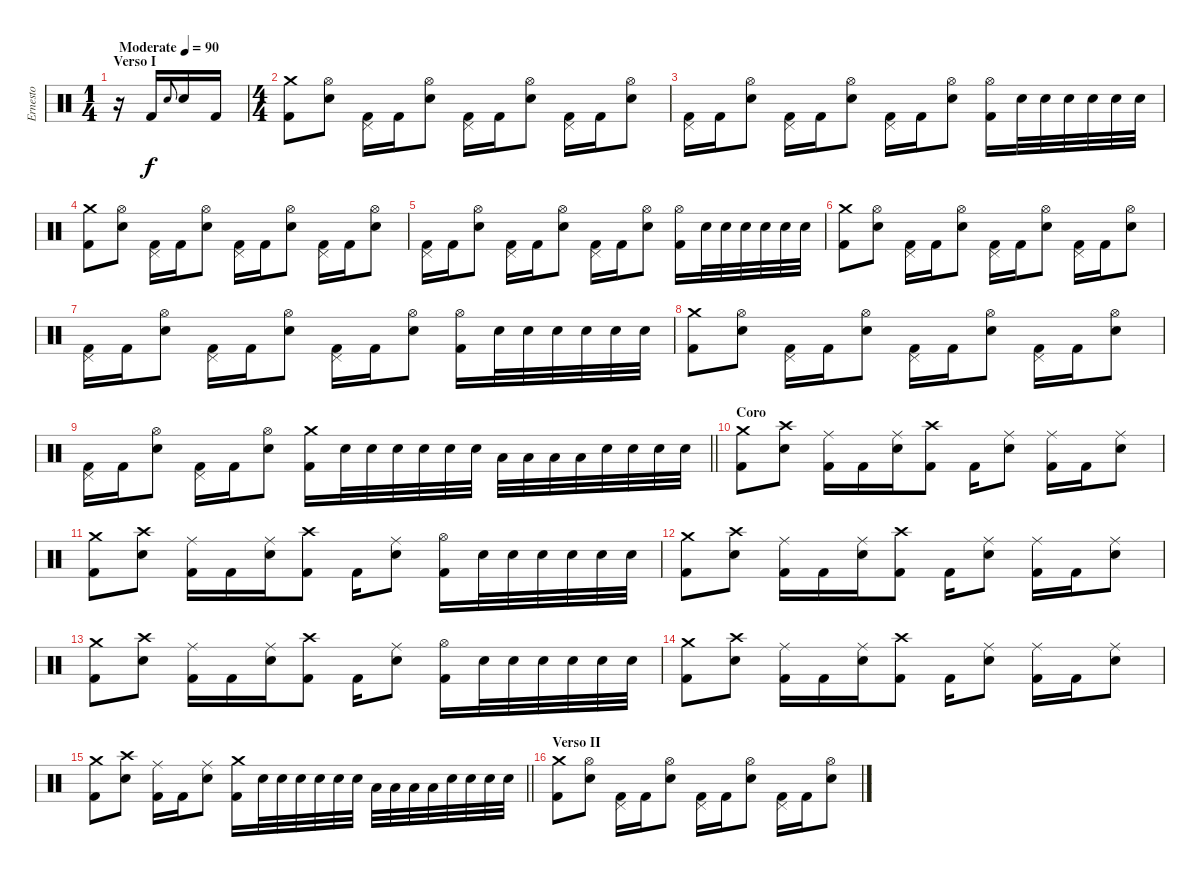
\track ("Ernesto" "Ernesto") {instrument percussion}
\staff
\articulation defaults
\ts (1 4)
\section ("" "Verso I")
\tempo (90 "Moderate")
\clef neutral
\ks c
r.16{dy f} "Kick (hit) 2".16 "Electric Snare (hit)".8{gr onbeat} "Electric Snare (hit)".16 "Kick (hit) 2".16 |
\ts (4 4)
("Crash medium (hit)" "Kick (hit) 2").8 ("Hi-Hat (open)" "Electric Snare (hit)").8 ("Pedal Hi-Hat (hit)" "Kick (hit) 2").16 "Kick (hit) 2".16 ("Hi-Hat (open)" "Electric Snare (hit)").8 ("Pedal Hi-Hat (hit)" "Kick (hit) 2").16 "Kick (hit) 2".16 ("Hi-Hat (open)" "Electric Snare (hit)").8 ("Pedal Hi-Hat (hit)" "Kick (hit) 2").16 "Kick (hit) 2".16 ("Hi-Hat (open)" "Electric Snare (hit)").8 |
("Pedal Hi-Hat (hit)" "Kick (hit) 2").16 "Kick (hit) 2".16 ("Hi-Hat (open)" "Electric Snare (hit)").8 ("Pedal Hi-Hat (hit)" "Kick (hit) 2").16 "Kick (hit) 2".16 ("Hi-Hat (open)" "Electric Snare (hit)").8 ("Pedal Hi-Hat (hit)" "Kick (hit) 2").16 "Kick (hit) 2".16 ("Hi-Hat (open)" "Electric Snare (hit)").8 ("Hi-Hat (open)" "Kick (hit) 2").16 "Electric Snare (hit)".32 "Electric Snare (hit)".32 "Electric Snare (hit)".32 "Electric Snare (hit)".32 "Electric Snare (hit)".32 "Electric Snare (hit)".32 |
("Crash medium (hit)" "Kick (hit) 2").8 ("Hi-Hat (open)" "Electric Snare (hit)").8 ("Pedal Hi-Hat (hit)" "Kick (hit) 2").16 "Kick (hit) 2".16 ("Hi-Hat (open)" "Electric Snare (hit)").8 ("Pedal Hi-Hat (hit)" "Kick (hit) 2").16 "Kick (hit) 2".16 ("Hi-Hat (open)" "Electric Snare (hit)").8 ("Pedal Hi-Hat (hit)" "Kick (hit) 2").16 "Kick (hit) 2".16 ("Hi-Hat (open)" "Electric Snare (hit)").8 |
("Pedal Hi-Hat (hit)" "Kick (hit) 2").16 "Kick (hit) 2".16 ("Hi-Hat (open)" "Electric Snare (hit)").8 ("Pedal Hi-Hat (hit)" "Kick (hit) 2").16 "Kick (hit) 2".16 ("Hi-Hat (open)" "Electric Snare (hit)").8 ("Pedal Hi-Hat (hit)" "Kick (hit) 2").16 "Kick (hit) 2".16 ("Hi-Hat (open)" "Electric Snare (hit)").8 ("Hi-Hat (open)" "Kick (hit) 2").16 "Electric Snare (hit)".32 "Electric Snare (hit)".32 "Electric Snare (hit)".32 "Electric Snare (hit)".32 "Electric Snare (hit)".32 "Electric Snare (hit)".32 |
("Crash medium (hit)" "Kick (hit) 2").8 ("Hi-Hat (open)" "Electric Snare (hit)").8 ("Pedal Hi-Hat (hit)" "Kick (hit) 2").16 "Kick (hit) 2".16 ("Hi-Hat (open)" "Electric Snare (hit)").8 ("Pedal Hi-Hat (hit)" "Kick (hit) 2").16 "Kick (hit) 2".16 ("Hi-Hat (open)" "Electric Snare (hit)").8 ("Pedal Hi-Hat (hit)" "Kick (hit) 2").16 "Kick (hit) 2".16 ("Hi-Hat (open)" "Electric Snare (hit)").8 |
("Pedal Hi-Hat (hit)" "Kick (hit) 2").16 "Kick (hit) 2".16 ("Hi-Hat (open)" "Electric Snare (hit)").8 ("Pedal Hi-Hat (hit)" "Kick (hit) 2").16 "Kick (hit) 2".16 ("Hi-Hat (open)" "Electric Snare (hit)").8 ("Pedal Hi-Hat (hit)" "Kick (hit) 2").16 "Kick (hit) 2".16 ("Hi-Hat (open)" "Electric Snare (hit)").8 ("Hi-Hat (open)" "Kick (hit) 2").16 "Electric Snare (hit)".32 "Electric Snare (hit)".32 "Electric Snare (hit)".32 "Electric Snare (hit)".32 "Electric Snare (hit)".32 "Electric Snare (hit)".32 |
("Crash medium (hit)" "Kick (hit) 2").8 ("Hi-Hat (open)" "Electric Snare (hit)").8 ("Pedal Hi-Hat (hit)" "Kick (hit) 2").16 "Kick (hit) 2".16 ("Hi-Hat (open)" "Electric Snare (hit)").8 ("Pedal Hi-Hat (hit)" "Kick (hit) 2").16 "Kick (hit) 2".16 ("Hi-Hat (open)" "Electric Snare (hit)").8 ("Pedal Hi-Hat (hit)" "Kick (hit) 2").16 "Kick (hit) 2".16 ("Hi-Hat (open)" "Electric Snare (hit)").8 |
\barLineRight lightlight
("Pedal Hi-Hat (hit)" "Kick (hit) 2").16 "Kick (hit) 2".16 ("Hi-Hat (open)" "Electric Snare (hit)").8 ("Pedal Hi-Hat (hit)" "Kick (hit) 2").16 "Kick (hit) 2".16 ("Hi-Hat (open)" "Electric Snare (hit)").8 ("Crash medium (hit)" "Kick (hit) 2").16 "Electric Snare (hit)".32 "Electric Snare (hit)".32 "Electric Snare (hit)".32 "Electric Snare (hit)".32 "Electric Snare (hit)".32 "Electric Snare (hit)".32 "Low Tom (hit)".32 "Low Tom (hit)".32 "Low Tom (hit)".32 "Low Tom (hit)".32 "Electric Snare (hit)".32 "Electric Snare (hit)".32 "Electric Snare (hit)".32 "Electric Snare (hit)".32 |
\section ("" "Coro")
("Crash medium (hit)" "Kick (hit) 2").8 ("Crash high (hit)" "Electric Snare (hit)").8 ("Ride (middle)" "Kick (hit) 2").16 "Kick (hit) 2".16 ("Ride (middle)" "Electric Snare (hit)").16 ("Crash high (hit)" "Kick (hit) 2").8 "Kick (hit) 2".16 ("Ride (middle)" "Electric Snare (hit)").8 ("Ride (middle)" "Kick (hit) 2").16 "Kick (hit) 2".16 ("Ride (middle)" "Electric Snare (hit)").8 |
("Crash medium (hit)" "Kick (hit) 2").8 ("Crash high (hit)" "Electric Snare (hit)").8 ("Ride (middle)" "Kick (hit) 2").16 "Kick (hit) 2".16 ("Ride (middle)" "Electric Snare (hit)").16 ("Crash high (hit)" "Kick (hit) 2").8 "Kick (hit) 2".16 ("Ride (middle)" "Electric Snare (hit)").8 ("Hi-Hat (open)" "Kick (hit) 2").16 "Electric Snare (hit)".32 "Electric Snare (hit)".32 "Electric Snare (hit)".32 "Electric Snare (hit)".32 "Electric Snare (hit)".32 "Electric Snare (hit)".32 |
("Crash medium (hit)" "Kick (hit) 2").8 ("Crash high (hit)" "Electric Snare (hit)").8 ("Ride (middle)" "Kick (hit) 2").16 "Kick (hit) 2".16 ("Ride (middle)" "Electric Snare (hit)").16 ("Crash high (hit)" "Kick (hit) 2").8 "Kick (hit) 2".16 ("Ride (middle)" "Electric Snare (hit)").8 ("Ride (middle)" "Kick (hit) 2").16 "Kick (hit) 2".16 ("Ride (middle)" "Electric Snare (hit)").8 |
("Crash medium (hit)" "Kick (hit) 2").8 ("Crash high (hit)" "Electric Snare (hit)").8 ("Ride (middle)" "Kick (hit) 2").16 "Kick (hit) 2".16 ("Ride (middle)" "Electric Snare (hit)").16 ("Crash high (hit)" "Kick (hit) 2").8 "Kick (hit) 2".16 ("Ride (middle)" "Electric Snare (hit)").8 ("Hi-Hat (open)" "Kick (hit) 2").16 "Electric Snare (hit)".32 "Electric Snare (hit)".32 "Electric Snare (hit)".32 "Electric Snare (hit)".32 "Electric Snare (hit)".32 "Electric Snare (hit)".32 |
("Crash medium (hit)" "Kick (hit) 2").8 ("Crash high (hit)" "Electric Snare (hit)").8 ("Ride (middle)" "Kick (hit) 2").16 "Kick (hit) 2".16 ("Ride (middle)" "Electric Snare (hit)").16 ("Crash high (hit)" "Kick (hit) 2").8 "Kick (hit) 2".16 ("Ride (middle)" "Electric Snare (hit)").8 ("Ride (middle)" "Kick (hit) 2").16 "Kick (hit) 2".16 ("Ride (middle)" "Electric Snare (hit)").8 |
\barLineRight lightlight
("Crash medium (hit)" "Kick (hit) 2").8 ("Crash high (hit)" "Electric Snare (hit)").8 ("Ride (middle)" "Kick (hit) 2").16 "Kick (hit) 2".16 ("Ride (middle)" "Electric Snare (hit)").8 ("Crash medium (hit)" "Kick (hit) 2").16 "Electric Snare (hit)".32 "Electric Snare (hit)".32 "Electric Snare (hit)".32 "Electric Snare (hit)".32 "Electric Snare (hit)".32 "Electric Snare (hit)".32 "Low Tom (hit)".32 "Low Tom (hit)".32 "Low Tom (hit)".32 "Low Tom (hit)".32 "Electric Snare (hit)".32 "Electric Snare (hit)".32 "Electric Snare (hit)".32 "Electric Snare (hit)".32 |
\section ("" "Verso II")
("Crash medium (hit)" "Kick (hit) 2").8 ("Hi-Hat (open)" "Electric Snare (hit)").8 ("Pedal Hi-Hat (hit)" "Kick (hit) 2").16 "Kick (hit) 2".16 ("Hi-Hat (open)" "Electric Snare (hit)").8 ("Pedal Hi-Hat (hit)" "Kick (hit) 2").16 "Kick (hit) 2".16 ("Hi-Hat (open)" "Electric Snare (hit)").8 ("Pedal Hi-Hat (hit)" "Kick (hit) 2").16 "Kick (hit) 2".16 ("Hi-Hat (open)" "Electric Snare (hit)").8
